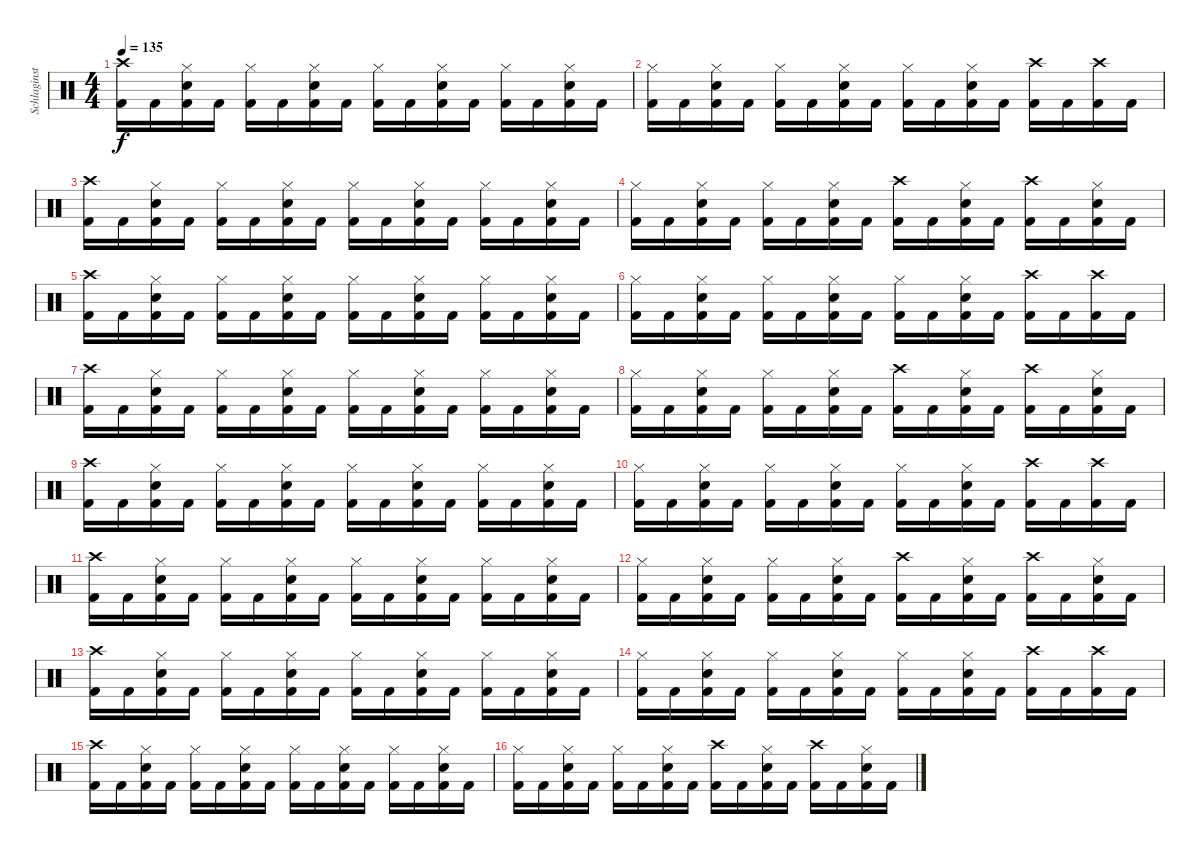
\track ("Schlaginstrumente - Auswahl" "Schlaginst") {instrument percussion}
\staff {score}
\articulation defaults
\ts (4 4)
\tempo 135
\clef neutral
\ks c
("Crash high (hit)" "Kick (hit) 2").16{dy f} "Kick (hit) 2".16 ("Hi-Hat (closed)" "Snare (hit) 2" "Kick (hit) 2").16 "Kick (hit) 2".16 ("Hi-Hat (closed)" "Kick (hit) 2").16 "Kick (hit) 2".16 ("Hi-Hat (closed)" "Snare (hit) 2" "Kick (hit) 2").16 "Kick (hit) 2".16 ("Hi-Hat (closed)" "Kick (hit) 2").16 "Kick (hit) 2".16 ("Hi-Hat (closed)" "Snare (hit) 2" "Kick (hit) 2").16 "Kick (hit) 2".16 ("Hi-Hat (closed)" "Kick (hit) 2").16 "Kick (hit) 2".16 ("Hi-Hat (closed)" "Snare (hit) 2" "Kick (hit) 2").16 "Kick (hit) 2".16 |
("Hi-Hat (closed)" "Kick (hit) 2").16 "Kick (hit) 2".16 ("Hi-Hat (closed)" "Snare (hit) 2" "Kick (hit) 2").16 "Kick (hit) 2".16 ("Hi-Hat (closed)" "Kick (hit) 2").16 "Kick (hit) 2".16 ("Hi-Hat (closed)" "Snare (hit) 2" "Kick (hit) 2").16 "Kick (hit) 2".16 ("Hi-Hat (closed)" "Kick (hit) 2").16 "Kick (hit) 2".16 ("Hi-Hat (closed)" "Snare (hit) 2" "Kick (hit) 2").16 "Kick (hit) 2".16 ("Crash high (hit)" "Kick (hit) 2").16 "Kick (hit) 2".16 ("Crash high (hit)" "Kick (hit) 2").16 "Kick (hit) 2".16 |
("Crash high (hit)" "Kick (hit) 2").16 "Kick (hit) 2".16 ("Hi-Hat (closed)" "Snare (hit) 2" "Kick (hit) 2").16 "Kick (hit) 2".16 ("Hi-Hat (closed)" "Kick (hit) 2").16 "Kick (hit) 2".16 ("Hi-Hat (closed)" "Snare (hit) 2" "Kick (hit) 2").16 "Kick (hit) 2".16 ("Hi-Hat (closed)" "Kick (hit) 2").16 "Kick (hit) 2".16 ("Hi-Hat (closed)" "Snare (hit) 2" "Kick (hit) 2").16 "Kick (hit) 2".16 ("Hi-Hat (closed)" "Kick (hit) 2").16 "Kick (hit) 2".16 ("Hi-Hat (closed)" "Snare (hit) 2" "Kick (hit) 2").16 "Kick (hit) 2".16 |
("Hi-Hat (closed)" "Kick (hit) 2").16 "Kick (hit) 2".16 ("Hi-Hat (closed)" "Snare (hit) 2" "Kick (hit) 2").16 "Kick (hit) 2".16 ("Hi-Hat (closed)" "Kick (hit) 2").16 "Kick (hit) 2".16 ("Hi-Hat (closed)" "Snare (hit) 2" "Kick (hit) 2").16 "Kick (hit) 2".16 ("Crash high (hit)" "Kick (hit) 2").16 "Kick (hit) 2".16 ("Hi-Hat (closed)" "Snare (hit) 2" "Kick (hit) 2").16 "Kick (hit) 2".16 ("Crash high (hit)" "Kick (hit) 2").16 "Kick (hit) 2".16 ("Hi-Hat (closed)" "Snare (hit) 2" "Kick (hit) 2").16 "Kick (hit) 2".16 |
("Crash high (hit)" "Kick (hit) 2").16 "Kick (hit) 2".16 ("Hi-Hat (closed)" "Snare (hit) 2" "Kick (hit) 2").16 "Kick (hit) 2".16 ("Hi-Hat (closed)" "Kick (hit) 2").16 "Kick (hit) 2".16 ("Hi-Hat (closed)" "Snare (hit) 2" "Kick (hit) 2").16 "Kick (hit) 2".16 ("Hi-Hat (closed)" "Kick (hit) 2").16 "Kick (hit) 2".16 ("Hi-Hat (closed)" "Snare (hit) 2" "Kick (hit) 2").16 "Kick (hit) 2".16 ("Hi-Hat (closed)" "Kick (hit) 2").16 "Kick (hit) 2".16 ("Hi-Hat (closed)" "Snare (hit) 2" "Kick (hit) 2").16 "Kick (hit) 2".16 |
("Hi-Hat (closed)" "Kick (hit) 2").16 "Kick (hit) 2".16 ("Hi-Hat (closed)" "Snare (hit) 2" "Kick (hit) 2").16 "Kick (hit) 2".16 ("Hi-Hat (closed)" "Kick (hit) 2").16 "Kick (hit) 2".16 ("Hi-Hat (closed)" "Snare (hit) 2" "Kick (hit) 2").16 "Kick (hit) 2".16 ("Hi-Hat (closed)" "Kick (hit) 2").16 "Kick (hit) 2".16 ("Hi-Hat (closed)" "Snare (hit) 2" "Kick (hit) 2").16 "Kick (hit) 2".16 ("Crash high (hit)" "Kick (hit) 2").16 "Kick (hit) 2".16 ("Crash high (hit)" "Kick (hit) 2").16 "Kick (hit) 2".16 |
("Crash high (hit)" "Kick (hit) 2").16 "Kick (hit) 2".16 ("Hi-Hat (closed)" "Snare (hit) 2" "Kick (hit) 2").16 "Kick (hit) 2".16 ("Hi-Hat (closed)" "Kick (hit) 2").16 "Kick (hit) 2".16 ("Hi-Hat (closed)" "Snare (hit) 2" "Kick (hit) 2").16 "Kick (hit) 2".16 ("Hi-Hat (closed)" "Kick (hit) 2").16 "Kick (hit) 2".16 ("Hi-Hat (closed)" "Snare (hit) 2" "Kick (hit) 2").16 "Kick (hit) 2".16 ("Hi-Hat (closed)" "Kick (hit) 2").16 "Kick (hit) 2".16 ("Hi-Hat (closed)" "Snare (hit) 2" "Kick (hit) 2").16 "Kick (hit) 2".16 |
("Hi-Hat (closed)" "Kick (hit) 2").16 "Kick (hit) 2".16 ("Hi-Hat (closed)" "Snare (hit) 2" "Kick (hit) 2").16 "Kick (hit) 2".16 ("Hi-Hat (closed)" "Kick (hit) 2").16 "Kick (hit) 2".16 ("Hi-Hat (closed)" "Snare (hit) 2" "Kick (hit) 2").16 "Kick (hit) 2".16 ("Crash high (hit)" "Kick (hit) 2").16 "Kick (hit) 2".16 ("Hi-Hat (closed)" "Snare (hit) 2" "Kick (hit) 2").16 "Kick (hit) 2".16 ("Crash high (hit)" "Kick (hit) 2").16 "Kick (hit) 2".16 ("Hi-Hat (closed)" "Snare (hit) 2" "Kick (hit) 2").16 "Kick (hit) 2".16 |
("Crash high (hit)" "Kick (hit) 2").16 "Kick (hit) 2".16 ("Hi-Hat (closed)" "Snare (hit) 2" "Kick (hit) 2").16 "Kick (hit) 2".16 ("Hi-Hat (closed)" "Kick (hit) 2").16 "Kick (hit) 2".16 ("Hi-Hat (closed)" "Snare (hit) 2" "Kick (hit) 2").16 "Kick (hit) 2".16 ("Hi-Hat (closed)" "Kick (hit) 2").16 "Kick (hit) 2".16 ("Hi-Hat (closed)" "Snare (hit) 2" "Kick (hit) 2").16 "Kick (hit) 2".16 ("Hi-Hat (closed)" "Kick (hit) 2").16 "Kick (hit) 2".16 ("Hi-Hat (closed)" "Snare (hit) 2" "Kick (hit) 2").16 "Kick (hit) 2".16 |
("Hi-Hat (closed)" "Kick (hit) 2").16 "Kick (hit) 2".16 ("Hi-Hat (closed)" "Snare (hit) 2" "Kick (hit) 2").16 "Kick (hit) 2".16 ("Hi-Hat (closed)" "Kick (hit) 2").16 "Kick (hit) 2".16 ("Hi-Hat (closed)" "Snare (hit) 2" "Kick (hit) 2").16 "Kick (hit) 2".16 ("Hi-Hat (closed)" "Kick (hit) 2").16 "Kick (hit) 2".16 ("Hi-Hat (closed)" "Snare (hit) 2" "Kick (hit) 2").16 "Kick (hit) 2".16 ("Crash high (hit)" "Kick (hit) 2").16 "Kick (hit) 2".16 ("Crash high (hit)" "Kick (hit) 2").16 "Kick (hit) 2".16 |
("Crash high (hit)" "Kick (hit) 2").16 "Kick (hit) 2".16 ("Hi-Hat (closed)" "Snare (hit) 2" "Kick (hit) 2").16 "Kick (hit) 2".16 ("Hi-Hat (closed)" "Kick (hit) 2").16 "Kick (hit) 2".16 ("Hi-Hat (closed)" "Snare (hit) 2" "Kick (hit) 2").16 "Kick (hit) 2".16 ("Hi-Hat (closed)" "Kick (hit) 2").16 "Kick (hit) 2".16 ("Hi-Hat (closed)" "Snare (hit) 2" "Kick (hit) 2").16 "Kick (hit) 2".16 ("Hi-Hat (closed)" "Kick (hit) 2").16 "Kick (hit) 2".16 ("Hi-Hat (closed)" "Snare (hit) 2" "Kick (hit) 2").16 "Kick (hit) 2".16 |
("Hi-Hat (closed)" "Kick (hit) 2").16 "Kick (hit) 2".16 ("Hi-Hat (closed)" "Snare (hit) 2" "Kick (hit) 2").16 "Kick (hit) 2".16 ("Hi-Hat (closed)" "Kick (hit) 2").16 "Kick (hit) 2".16 ("Hi-Hat (closed)" "Snare (hit) 2" "Kick (hit) 2").16 "Kick (hit) 2".16 ("Crash high (hit)" "Kick (hit) 2").16 "Kick (hit) 2".16 ("Hi-Hat (closed)" "Snare (hit) 2" "Kick (hit) 2").16 "Kick (hit) 2".16 ("Crash high (hit)" "Kick (hit) 2").16 "Kick (hit) 2".16 ("Hi-Hat (closed)" "Snare (hit) 2" "Kick (hit) 2").16 "Kick (hit) 2".16 |
("Crash high (hit)" "Kick (hit) 2").16 "Kick (hit) 2".16 ("Hi-Hat (closed)" "Snare (hit) 2" "Kick (hit) 2").16 "Kick (hit) 2".16 ("Hi-Hat (closed)" "Kick (hit) 2").16 "Kick (hit) 2".16 ("Hi-Hat (closed)" "Snare (hit) 2" "Kick (hit) 2").16 "Kick (hit) 2".16 ("Hi-Hat (closed)" "Kick (hit) 2").16 "Kick (hit) 2".16 ("Hi-Hat (closed)" "Snare (hit) 2" "Kick (hit) 2").16 "Kick (hit) 2".16 ("Hi-Hat (closed)" "Kick (hit) 2").16 "Kick (hit) 2".16 ("Hi-Hat (closed)" "Snare (hit) 2" "Kick (hit) 2").16 "Kick (hit) 2".16 |
("Hi-Hat (closed)" "Kick (hit) 2").16 "Kick (hit) 2".16 ("Hi-Hat (closed)" "Snare (hit) 2" "Kick (hit) 2").16 "Kick (hit) 2".16 ("Hi-Hat (closed)" "Kick (hit) 2").16 "Kick (hit) 2".16 ("Hi-Hat (closed)" "Snare (hit) 2" "Kick (hit) 2").16 "Kick (hit) 2".16 ("Hi-Hat (closed)" "Kick (hit) 2").16 "Kick (hit) 2".16 ("Hi-Hat (closed)" "Snare (hit) 2" "Kick (hit) 2").16 "Kick (hit) 2".16 ("Crash high (hit)" "Kick (hit) 2").16 "Kick (hit) 2".16 ("Crash high (hit)" "Kick (hit) 2").16 "Kick (hit) 2".16 |
("Crash high (hit)" "Kick (hit) 2").16 "Kick (hit) 2".16 ("Hi-Hat (closed)" "Snare (hit) 2" "Kick (hit) 2").16 "Kick (hit) 2".16 ("Hi-Hat (closed)" "Kick (hit) 2").16 "Kick (hit) 2".16 ("Hi-Hat (closed)" "Snare (hit) 2" "Kick (hit) 2").16 "Kick (hit) 2".16 ("Hi-Hat (closed)" "Kick (hit) 2").16 "Kick (hit) 2".16 ("Hi-Hat (closed)" "Snare (hit) 2" "Kick (hit) 2").16 "Kick (hit) 2".16 ("Hi-Hat (closed)" "Kick (hit) 2").16 "Kick (hit) 2".16 ("Hi-Hat (closed)" "Snare (hit) 2" "Kick (hit) 2").16 "Kick (hit) 2".16 |
("Hi-Hat (closed)" "Kick (hit) 2").16 "Kick (hit) 2".16 ("Hi-Hat (closed)" "Snare (hit) 2" "Kick (hit) 2").16 "Kick (hit) 2".16 ("Hi-Hat (closed)" "Kick (hit) 2").16 "Kick (hit) 2".16 ("Hi-Hat (closed)" "Snare (hit) 2" "Kick (hit) 2").16 "Kick (hit) 2".16 ("Crash high (hit)" "Kick (hit) 2").16 "Kick (hit) 2".16 ("Hi-Hat (closed)" "Snare (hit) 2" "Kick (hit) 2").16 "Kick (hit) 2".16 ("Crash high (hit)" "Kick (hit) 2").16 "Kick (hit) 2".16 ("Hi-Hat (closed)" "Snare (hit) 2" "Kick (hit) 2").16 "Kick (hit) 2".16
